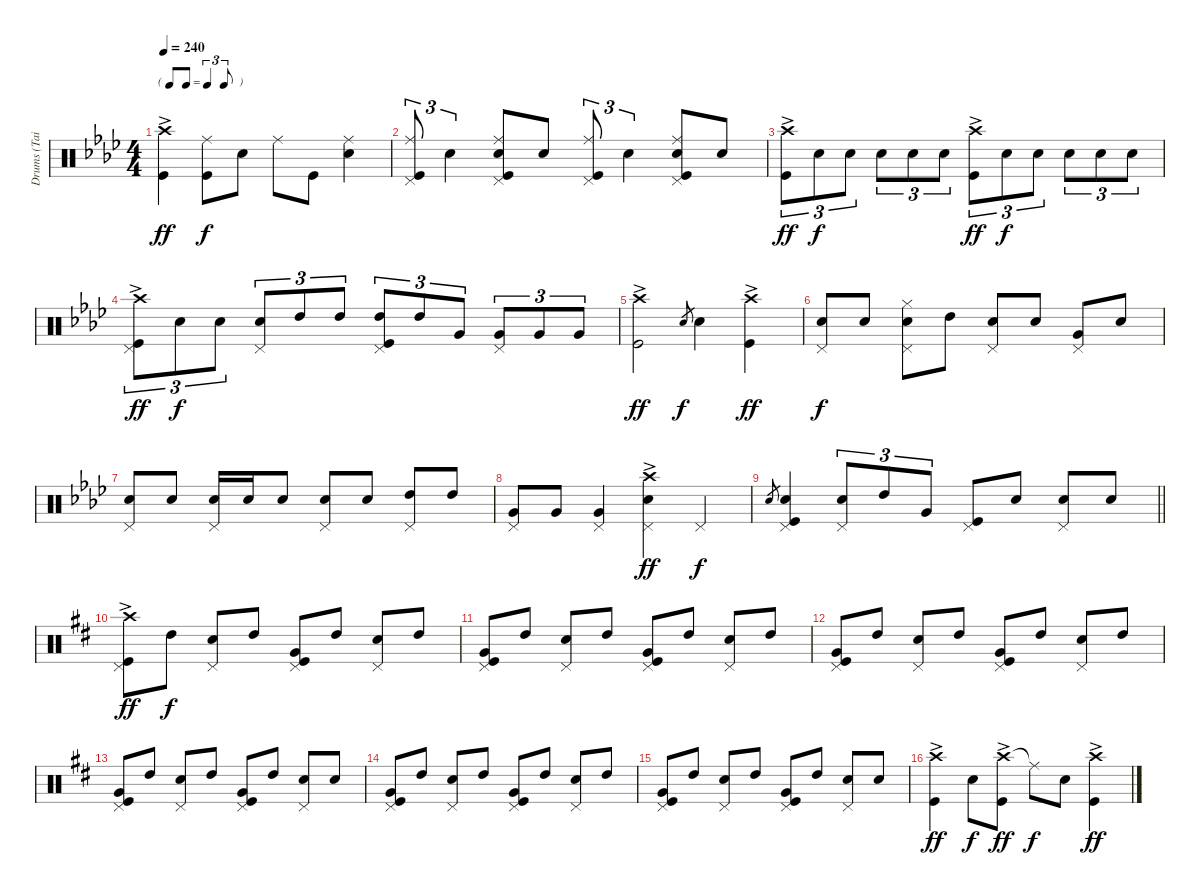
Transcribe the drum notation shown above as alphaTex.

\track ("Drums (Tainaka Ritsu)" "Drums (Tai") {instrument percussion}
\staff {score}
\articulation defaults
\ts (4 4)
\tf triplet8th
\tempo 240
\clef neutral
\ks ab
("Crash high (hit)"{ac} "Kick (hit)").4{dy ff} ("Ride (middle)" "Kick (hit)").8{dy f} "Snare (hit) 2".8 "Ride (middle)".8 "Kick (hit)".8 ("Ride (middle)" "Snare (hit) 2").4 |
("Ride (middle)" "Kick (hit)" "Pedal Hi-Hat (hit)").8{tu (3 2)} "Snare (hit) 2".4{tu (3 2)} ("Ride (middle)" "Snare (hit) 2" "Kick (hit)" "Pedal Hi-Hat (hit)").8 "Snare (hit) 2".8 ("Ride (middle)" "Kick (hit)" "Pedal Hi-Hat (hit)").8{tu (3 2)} "Snare (hit) 2".4{tu (3 2)} ("Ride (middle)" "Snare (hit) 2" "Kick (hit)" "Pedal Hi-Hat (hit)").8 "Snare (hit) 2".8 |
("Crash high (hit)"{ac} "Kick (hit)").8{tu (3 2) dy ff} "Snare (hit) 2".8{tu (3 2) dy f} "Snare (hit) 2".8{tu (3 2)} "Snare (hit) 2".8{tu (3 2)} "Snare (hit) 2".8{tu (3 2)} "Snare (hit) 2".8{tu (3 2)} ("Crash high (hit)"{ac} "Kick (hit)").8{tu (3 2) dy ff} "Snare (hit) 2".8{tu (3 2) dy f} "Snare (hit) 2".8{tu (3 2)} "Snare (hit) 2".8{tu (3 2)} "Snare (hit) 2".8{tu (3 2)} "Snare (hit) 2".8{tu (3 2)} |
("Crash high (hit)"{ac} "Kick (hit)" "Pedal Hi-Hat (hit)").8{tu (3 2) dy ff} "Snare (hit) 2".8{tu (3 2) dy f} "Snare (hit) 2".8{tu (3 2)} ("Snare (hit) 2" "Pedal Hi-Hat (hit)").8{tu (3 2)} "High Tom (hit)".8{tu (3 2)} "High Tom (hit)".8{tu (3 2)} ("High Tom (hit)" "Kick (hit)" "Pedal Hi-Hat (hit)").8{tu (3 2)} "High Tom (hit)".8{tu (3 2)} "Very Low Tom (hit)".8{tu (3 2)} ("Very Low Tom (hit)" "Pedal Hi-Hat (hit)").8{tu (3 2)} "Very Low Tom (hit)".8{tu (3 2)} "Very Low Tom (hit)".8{tu (3 2)} |
("Crash high (hit)"{ac} "Kick (hit)").2{dy ff} "Snare (hit) 2".8{gr dy f} "Snare (hit) 2".4 ("Crash high (hit)"{ac} "Kick (hit)").4{dy ff} |
("Snare (hit) 2" "Pedal Hi-Hat (hit)").8{dy f} "Snare (hit) 2".8 ("Snare (hit) 2" "Pedal Hi-Hat (hit)" "Hi-Hat (closed)").8 "High Tom (hit)".8 ("Snare (hit) 2" "Pedal Hi-Hat (hit)").8 "Snare (hit) 2".8 ("Very Low Tom (hit)" "Pedal Hi-Hat (hit)").8 "Snare (hit) 2".8 |
("Snare (hit) 2" "Pedal Hi-Hat (hit)").8 "Snare (hit) 2".8 ("Snare (hit) 2" "Pedal Hi-Hat (hit)").16 "Snare (hit) 2".16 "Snare (hit) 2".8 ("Snare (hit) 2" "Pedal Hi-Hat (hit)").8 "Snare (hit) 2".8 ("High Tom (hit)" "Pedal Hi-Hat (hit)").8 "High Tom (hit)".8 |
("Very Low Tom (hit)" "Pedal Hi-Hat (hit)").8 "Very Low Tom (hit)".8 ("Very Low Tom (hit)" "Pedal Hi-Hat (hit)").4 ("Crash high (hit)"{ac} "Snare (hit) 2" "Pedal Hi-Hat (hit)").4{dy ff} "Pedal Hi-Hat (hit)".4{dy f} |
\barLineRight lightlight "Snare (hit) 2".8{gr}
("Snare (hit) 2" "Kick (hit)" "Pedal Hi-Hat (hit)").4 ("Snare (hit) 2" "Pedal Hi-Hat (hit)").8{tu (3 2)} "High Tom (hit)".8{tu (3 2)} "Very Low Tom (hit)".8{tu (3 2)} ("Kick (hit)" "Pedal Hi-Hat (hit)").8 "Snare (hit) 2".8 ("Snare (hit) 2" "Pedal Hi-Hat (hit)").8 "Snare (hit) 2".8 |
\ks d
("Crash high (hit)"{ac} "Kick (hit)" "Pedal Hi-Hat (hit)").8{dy ff} "High Tom (hit)".8{dy f} ("Snare (hit) 2" "Pedal Hi-Hat (hit)").8 "High Tom (hit)".8 ("Very Low Tom (hit)" "Kick (hit)" "Pedal Hi-Hat (hit)").8 "High Tom (hit)".8 ("Snare (hit) 2" "Pedal Hi-Hat (hit)").8 "High Tom (hit)".8 |
("Very Low Tom (hit)" "Kick (hit)" "Pedal Hi-Hat (hit)").8 "High Tom (hit)".8 ("Snare (hit) 2" "Pedal Hi-Hat (hit)").8 "High Tom (hit)".8 ("Very Low Tom (hit)" "Kick (hit)" "Pedal Hi-Hat (hit)").8 "High Tom (hit)".8 ("Snare (hit) 2" "Pedal Hi-Hat (hit)").8 "High Tom (hit)".8 |
("Very Low Tom (hit)" "Kick (hit)" "Pedal Hi-Hat (hit)").8 "High Tom (hit)".8 ("Snare (hit) 2" "Pedal Hi-Hat (hit)").8 "High Tom (hit)".8 ("Very Low Tom (hit)" "Kick (hit)" "Pedal Hi-Hat (hit)").8 "High Tom (hit)".8 ("Snare (hit) 2" "Pedal Hi-Hat (hit)").8 "High Tom (hit)".8 |
("Very Low Tom (hit)" "Kick (hit)" "Pedal Hi-Hat (hit)").8 "High Tom (hit)".8 ("Snare (hit) 2" "Pedal Hi-Hat (hit)").8 "High Tom (hit)".8 ("Very Low Tom (hit)" "Kick (hit)" "Pedal Hi-Hat (hit)").8 "High Tom (hit)".8 ("Snare (hit) 2" "Pedal Hi-Hat (hit)").8 "Snare (hit) 2".8 |
("Very Low Tom (hit)" "Kick (hit)" "Pedal Hi-Hat (hit)").8 "High Tom (hit)".8 ("Snare (hit) 2" "Pedal Hi-Hat (hit)").8 "High Tom (hit)".8 ("Very Low Tom (hit)" "Kick (hit)" "Pedal Hi-Hat (hit)").8 "High Tom (hit)".8 ("Snare (hit) 2" "Pedal Hi-Hat (hit)").8 "High Tom (hit)".8 |
("Very Low Tom (hit)" "Kick (hit)" "Pedal Hi-Hat (hit)").8 "High Tom (hit)".8 ("Snare (hit) 2" "Pedal Hi-Hat (hit)").8 "High Tom (hit)".8 ("Very Low Tom (hit)" "Kick (hit)" "Pedal Hi-Hat (hit)").8 "High Tom (hit)".8 ("Snare (hit) 2" "Pedal Hi-Hat (hit)").8 "Snare (hit) 2".8 |
("Crash high (hit)"{ac} "Kick (hit)").4{dy ff} "Snare (hit) 2".8{dy f} ("Crash high (hit)"{ac} "Kick (hit)").8{dy ff} "Ride (middle)"{t}.8{dy f} "Snare (hit) 2".8 ("Crash high (hit)"{ac} "Kick (hit)").4{dy ff}
